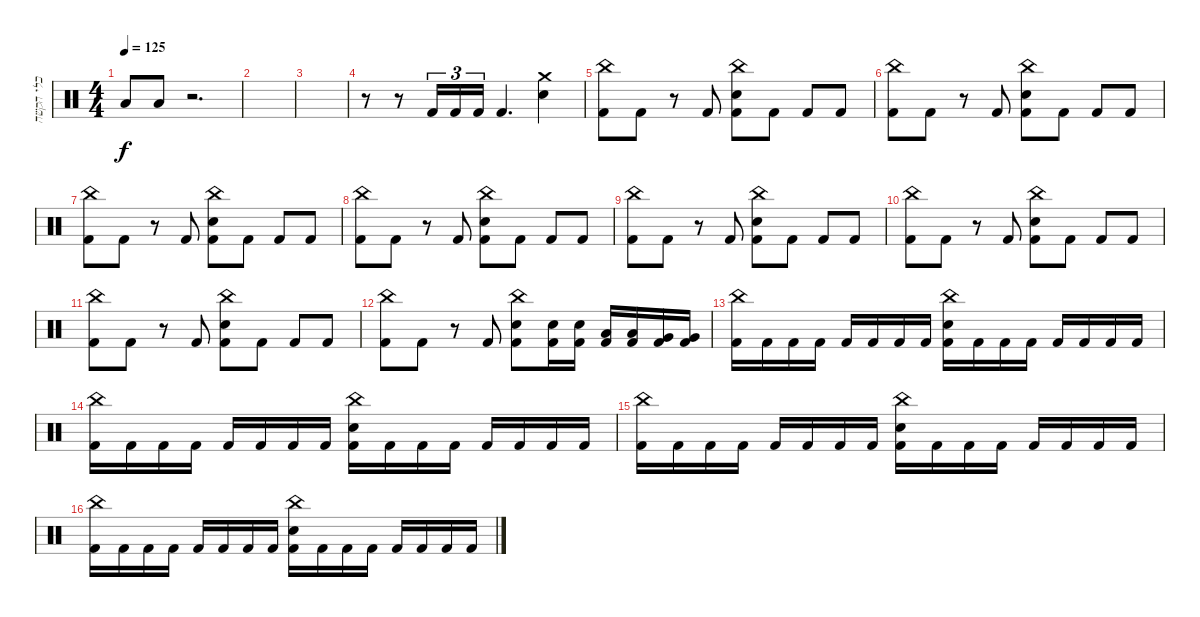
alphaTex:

\track ("כלי הקשה" "כלי הקשה") {instrument percussion}
\staff {score}
\articulation defaults
\ts (4 4)
\tempo 125
\clef neutral
\ks c "Low Floor Tom (hit)".8{dy f} "Low Floor Tom (hit)".8
r.2{d} |
|
|
r.8 r.8 "Kick (hit) 2".16{tu (3 2)} "Kick (hit) 2".16{tu (3 2)} "Kick (hit) 2".16{tu (3 2)} "Kick (hit) 2".4{d} ("Crash medium (hit)" "Snare (hit) 2").4 |
("China (hit)" "Kick (hit) 2").8 "Kick (hit) 2".8 r.8 "Kick (hit) 2".8 ("China (hit)" "Snare (hit) 2" "Kick (hit) 2").8 "Kick (hit) 2".8 "Kick (hit) 2".8 "Kick (hit) 2".8 |
("China (hit)" "Kick (hit) 2").8 "Kick (hit) 2".8 r.8 "Kick (hit) 2".8 ("China (hit)" "Snare (hit) 2" "Kick (hit) 2").8 "Kick (hit) 2".8 "Kick (hit) 2".8 "Kick (hit) 2".8 |
("China (hit)" "Kick (hit) 2").8 "Kick (hit) 2".8 r.8 "Kick (hit) 2".8 ("China (hit)" "Snare (hit) 2" "Kick (hit) 2").8 "Kick (hit) 2".8 "Kick (hit) 2".8 "Kick (hit) 2".8 |
("China (hit)" "Kick (hit) 2").8 "Kick (hit) 2".8 r.8 "Kick (hit) 2".8 ("China (hit)" "Snare (hit) 2" "Kick (hit) 2").8 "Kick (hit) 2".8 "Kick (hit) 2".8 "Kick (hit) 2".8 |
("China (hit)" "Kick (hit) 2").8 "Kick (hit) 2".8 r.8 "Kick (hit) 2".8 ("China (hit)" "Snare (hit) 2" "Kick (hit) 2").8 "Kick (hit) 2".8 "Kick (hit) 2".8 "Kick (hit) 2".8 |
("China (hit)" "Kick (hit) 2").8 "Kick (hit) 2".8 r.8 "Kick (hit) 2".8 ("China (hit)" "Snare (hit) 2" "Kick (hit) 2").8 "Kick (hit) 2".8 "Kick (hit) 2".8 "Kick (hit) 2".8 |
("China (hit)" "Kick (hit) 2").8 "Kick (hit) 2".8 r.8 "Kick (hit) 2".8 ("China (hit)" "Snare (hit) 2" "Kick (hit) 2").8 "Kick (hit) 2".8 "Kick (hit) 2".8 "Kick (hit) 2".8 |
("China (hit)" "Kick (hit) 2").8 "Kick (hit) 2".8 r.8 "Kick (hit) 2".8 ("China (hit)" "Snare (hit) 2" "Kick (hit) 2").8 ("Snare (hit) 2" "Kick (hit) 2").16 ("Snare (hit) 2" "Kick (hit) 2").16 ("Low Tom (hit)" "Kick (hit) 2").16 ("Low Tom (hit)" "Kick (hit) 2").16 ("Very Low Tom (hit)" "Kick (hit) 2").16 ("Very Low Tom (hit)" "Kick (hit) 2").16 |
("China (hit)" "Kick (hit) 2").16 "Kick (hit) 2".16 "Kick (hit) 2".16 "Kick (hit) 2".16 "Kick (hit) 2".16 "Kick (hit) 2".16 "Kick (hit) 2".16 "Kick (hit) 2".16 ("China (hit)" "Snare (hit) 2" "Kick (hit) 2").16 "Kick (hit) 2".16 "Kick (hit) 2".16 "Kick (hit) 2".16 "Kick (hit) 2".16 "Kick (hit) 2".16 "Kick (hit) 2".16 "Kick (hit) 2".16 |
("China (hit)" "Kick (hit) 2").16 "Kick (hit) 2".16 "Kick (hit) 2".16 "Kick (hit) 2".16 "Kick (hit) 2".16 "Kick (hit) 2".16 "Kick (hit) 2".16 "Kick (hit) 2".16 ("China (hit)" "Snare (hit) 2" "Kick (hit) 2").16 "Kick (hit) 2".16 "Kick (hit) 2".16 "Kick (hit) 2".16 "Kick (hit) 2".16 "Kick (hit) 2".16 "Kick (hit) 2".16 "Kick (hit) 2".16 |
("China (hit)" "Kick (hit) 2").16 "Kick (hit) 2".16 "Kick (hit) 2".16 "Kick (hit) 2".16 "Kick (hit) 2".16 "Kick (hit) 2".16 "Kick (hit) 2".16 "Kick (hit) 2".16 ("China (hit)" "Snare (hit) 2" "Kick (hit) 2").16 "Kick (hit) 2".16 "Kick (hit) 2".16 "Kick (hit) 2".16 "Kick (hit) 2".16 "Kick (hit) 2".16 "Kick (hit) 2".16 "Kick (hit) 2".16 |
("China (hit)" "Kick (hit) 2").16 "Kick (hit) 2".16 "Kick (hit) 2".16 "Kick (hit) 2".16 "Kick (hit) 2".16 "Kick (hit) 2".16 "Kick (hit) 2".16 "Kick (hit) 2".16 ("China (hit)" "Snare (hit) 2" "Kick (hit) 2").16 "Kick (hit) 2".16 "Kick (hit) 2".16 "Kick (hit) 2".16 "Kick (hit) 2".16 "Kick (hit) 2".16 "Kick (hit) 2".16 "Kick (hit) 2".16
